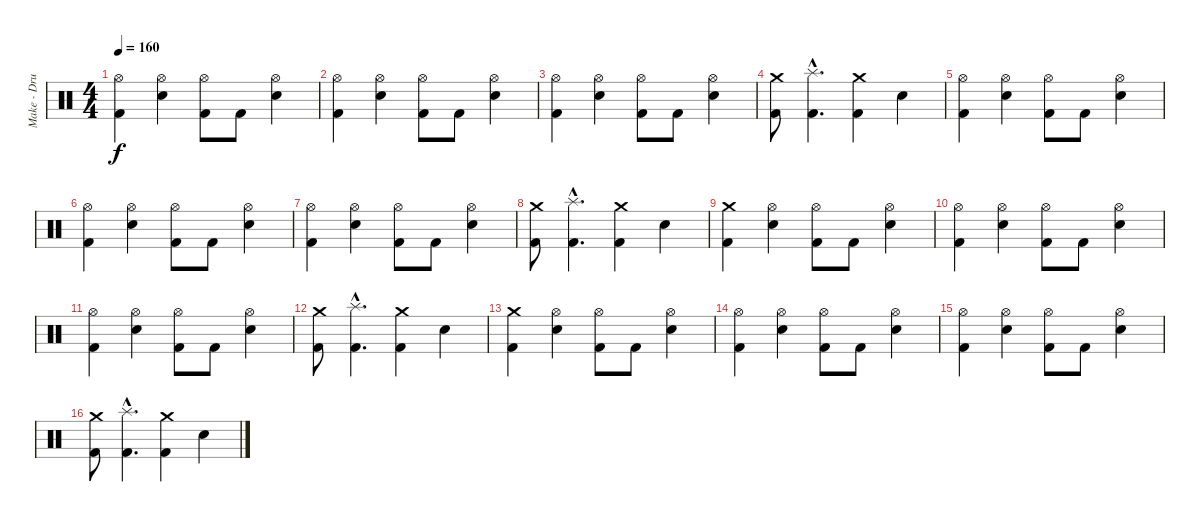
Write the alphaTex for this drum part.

\track ("Make - Drums" "Make - Dru") {instrument percussion}
\staff {score}
\articulation defaults
\ts (4 4)
\tempo 160
\clef neutral
\ks c
("Kick (hit) 2" "Hi-Hat (open)").4{dy f} ("Snare (hit) 2" "Hi-Hat (open)").4 ("Kick (hit) 2" "Hi-Hat (open)").8 "Kick (hit) 2".8 ("Snare (hit) 2" "Hi-Hat (open)").4 |
("Kick (hit) 2" "Hi-Hat (open)").4 ("Snare (hit) 2" "Hi-Hat (open)").4 ("Kick (hit) 2" "Hi-Hat (open)").8 "Kick (hit) 2".8 ("Snare (hit) 2" "Hi-Hat (open)").4 |
("Kick (hit) 2" "Hi-Hat (open)").4 ("Snare (hit) 2" "Hi-Hat (open)").4 ("Kick (hit) 2" "Hi-Hat (open)").8 "Kick (hit) 2".8 ("Snare (hit) 2" "Hi-Hat (open)").4 |
("Kick (hit) 2" "Crash medium (hit)").8 ("Kick (hit) 2"{hac} "Splash (hit)"{hac}).4{d} ("Kick (hit) 2" "Crash medium (hit)").4 "Snare (hit) 2".4 |
("Kick (hit) 2" "Hi-Hat (open)").4 ("Snare (hit) 2" "Hi-Hat (open)").4 ("Kick (hit) 2" "Hi-Hat (open)").8 "Kick (hit) 2".8 ("Snare (hit) 2" "Hi-Hat (open)").4 |
("Kick (hit) 2" "Hi-Hat (open)").4 ("Snare (hit) 2" "Hi-Hat (open)").4 ("Kick (hit) 2" "Hi-Hat (open)").8 "Kick (hit) 2".8 ("Snare (hit) 2" "Hi-Hat (open)").4 |
("Kick (hit) 2" "Hi-Hat (open)").4 ("Snare (hit) 2" "Hi-Hat (open)").4 ("Kick (hit) 2" "Hi-Hat (open)").8 "Kick (hit) 2".8 ("Snare (hit) 2" "Hi-Hat (open)").4 |
("Kick (hit) 2" "Crash medium (hit)").8 ("Kick (hit) 2"{hac} "Splash (hit)"{hac}).4{d} ("Kick (hit) 2" "Crash medium (hit)").4 "Snare (hit) 2".4 |
("Kick (hit) 2" "Crash medium (hit)").4 ("Snare (hit) 2" "Hi-Hat (open)").4 ("Kick (hit) 2" "Hi-Hat (open)").8 "Kick (hit) 2".8 ("Snare (hit) 2" "Hi-Hat (open)").4 |
("Kick (hit) 2" "Hi-Hat (open)").4 ("Snare (hit) 2" "Hi-Hat (open)").4 ("Kick (hit) 2" "Hi-Hat (open)").8 "Kick (hit) 2".8 ("Snare (hit) 2" "Hi-Hat (open)").4 |
("Kick (hit) 2" "Hi-Hat (open)").4 ("Snare (hit) 2" "Hi-Hat (open)").4 ("Kick (hit) 2" "Hi-Hat (open)").8 "Kick (hit) 2".8 ("Snare (hit) 2" "Hi-Hat (open)").4 |
("Kick (hit) 2" "Crash medium (hit)").8 ("Kick (hit) 2"{hac} "Splash (hit)"{hac}).4{d} ("Kick (hit) 2" "Crash medium (hit)").4 "Snare (hit) 2".4 |
("Kick (hit) 2" "Crash medium (hit)").4 ("Snare (hit) 2" "Hi-Hat (open)").4 ("Kick (hit) 2" "Hi-Hat (open)").8 "Kick (hit) 2".8 ("Snare (hit) 2" "Hi-Hat (open)").4 |
("Kick (hit) 2" "Hi-Hat (open)").4 ("Snare (hit) 2" "Hi-Hat (open)").4 ("Kick (hit) 2" "Hi-Hat (open)").8 "Kick (hit) 2".8 ("Snare (hit) 2" "Hi-Hat (open)").4 |
("Kick (hit) 2" "Hi-Hat (open)").4 ("Snare (hit) 2" "Hi-Hat (open)").4 ("Kick (hit) 2" "Hi-Hat (open)").8 "Kick (hit) 2".8 ("Snare (hit) 2" "Hi-Hat (open)").4 |
("Kick (hit) 2" "Crash medium (hit)").8 ("Kick (hit) 2"{hac} "Splash (hit)"{hac}).4{d} ("Kick (hit) 2" "Crash medium (hit)").4 "Snare (hit) 2".4
